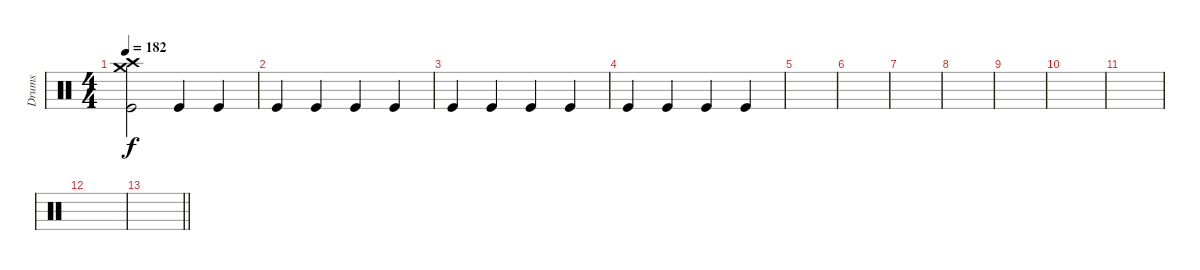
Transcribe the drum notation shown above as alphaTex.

\track ("Drums" "Drums") {instrument percussion}
\staff
\articulation defaults
\ts (4 4)
\tempo 182
\clef neutral
\ks c
("Crash high (hit)" "Crash medium (hit)" "Kick (hit)").2{dy f} "Kick (hit)".4 "Kick (hit)".4 |
"Kick (hit)".4 "Kick (hit)".4 "Kick (hit)".4 "Kick (hit)".4 |
"Kick (hit)".4 "Kick (hit)".4 "Kick (hit)".4 "Kick (hit)".4 |
"Kick (hit)".4 "Kick (hit)".4 "Kick (hit)".4 "Kick (hit)".4 |
|
|
|
|
|
|
|
|
\barLineRight lightlight
